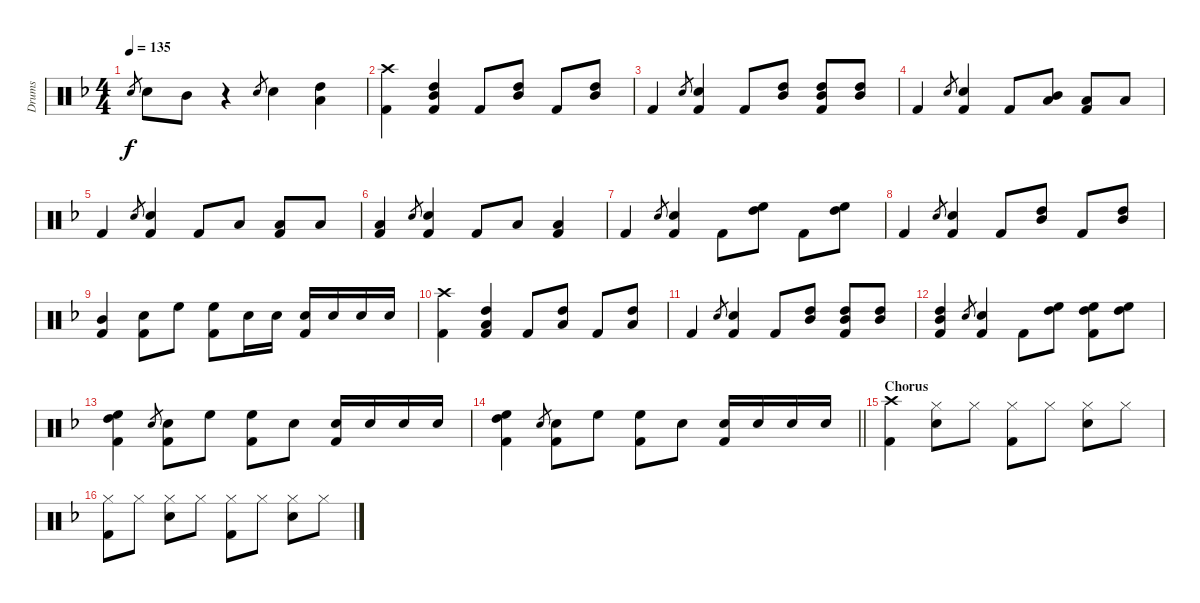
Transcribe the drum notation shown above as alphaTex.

\track ("Drums" "Drums") {instrument percussion}
\staff {score}
\articulation defaults
\ts (4 4)
\tempo 135
\clef neutral
\ks f "Snare (hit) 2".8{gr dy f} "Snare (hit) 2".8 "Mid Tom (hit)".8
r.4 "Snare (hit) 2".8{gr} "Snare (hit) 2".4 ("High Tom (hit)" "Low Tom (hit)").4 |
("Crash high (hit)" "Kick (hit) 2").4 ("High Tom (hit)" "Mid Tom (hit)" "Kick (hit) 2").4 "Kick (hit) 2".8 ("High Tom (hit)" "Mid Tom (hit)").8 "Kick (hit) 2".8 ("High Tom (hit)" "Mid Tom (hit)").8 |
"Kick (hit) 2".4 "Snare (hit) 2".8{gr} ("Snare (hit) 2" "Kick (hit) 2").4 "Kick (hit) 2".8 ("High Tom (hit)" "Mid Tom (hit)").8 ("High Tom (hit)" "Mid Tom (hit)" "Kick (hit) 2").8 ("High Tom (hit)" "Mid Tom (hit)").8 |
"Kick (hit) 2".4 "Snare (hit) 2".8{gr} ("Snare (hit) 2" "Kick (hit) 2").4 "Kick (hit) 2".8 ("Mid Tom (hit)" "Low Tom (hit)").8 ("Low Tom (hit)" "Kick (hit) 2").8 "Low Tom (hit)".8 |
"Kick (hit) 2".4 "Snare (hit) 2".8{gr} ("Snare (hit) 2" "Kick (hit) 2").4 "Kick (hit) 2".8 "Low Tom (hit)".8 ("Low Tom (hit)" "Kick (hit) 2").8 "Low Tom (hit)".8 |
("Low Tom (hit)" "Kick (hit) 2").4 "Snare (hit) 2".8{gr} ("Snare (hit) 2" "Kick (hit) 2").4 "Kick (hit) 2".8 "Low Tom (hit)".8 ("Low Tom (hit)" "Kick (hit) 2").4 |
"Kick (hit) 2".4 "Snare (hit) 2".8{gr} ("Snare (hit) 2" "Kick (hit) 2").4 "Kick (hit) 2".8 ("High Tom (hit)" "High Floor Tom (hit)").8 "Kick (hit) 2".8 ("High Tom (hit)" "High Floor Tom (hit)").8 |
"Kick (hit) 2".4 "Snare (hit) 2".8{gr} ("Snare (hit) 2" "Kick (hit) 2").4 "Kick (hit) 2".8 ("High Tom (hit)" "Mid Tom (hit)").8 "Kick (hit) 2".8 ("High Tom (hit)" "Mid Tom (hit)").8 |
("Mid Tom (hit)" "Kick (hit) 2").4 ("Snare (hit) 2" "Kick (hit) 2").8 "High Floor Tom (hit)".8 ("High Floor Tom (hit)" "Kick (hit) 2").8 "Snare (hit) 2".16 "Snare (hit) 2".16 ("Snare (hit) 2" "Kick (hit) 2").16 "Snare (hit) 2".16 "Snare (hit) 2".16 "Snare (hit) 2".16 |
("Crash high (hit)" "Kick (hit) 2").4 ("High Tom (hit)" "Low Tom (hit)" "Kick (hit) 2").4 "Kick (hit) 2".8 ("High Tom (hit)" "Low Tom (hit)").8 "Kick (hit) 2".8 ("High Tom (hit)" "Low Tom (hit)").8 |
"Kick (hit) 2".4 "Snare (hit) 2".8{gr} ("Snare (hit) 2" "Kick (hit) 2").4 "Kick (hit) 2".8 ("High Tom (hit)" "Mid Tom (hit)").8 ("High Tom (hit)" "Mid Tom (hit)" "Kick (hit) 2").8 ("High Tom (hit)" "Mid Tom (hit)").8 |
("High Tom (hit)" "Mid Tom (hit)" "Kick (hit) 2").4 "Snare (hit) 2".8{gr} ("Snare (hit) 2" "Kick (hit) 2").4 "Kick (hit) 2".8 ("High Floor Tom (hit)" "High Tom (hit)").8 ("High Floor Tom (hit)" "High Tom (hit)" "Kick (hit) 2").8 ("High Floor Tom (hit)" "High Tom (hit)").8 |
("High Floor Tom (hit)" "High Tom (hit)" "Kick (hit) 2").4 "Snare (hit) 2".8{gr} ("Snare (hit) 2" "Kick (hit) 2").8 "High Floor Tom (hit)".8 ("High Floor Tom (hit)" "Kick (hit) 2").8 "Snare (hit) 2".8 ("Snare (hit) 2" "Kick (hit) 2").16 "Snare (hit) 2".16 "Snare (hit) 2".16 "Snare (hit) 2".16 |
\barLineRight lightlight
("High Floor Tom (hit)" "High Tom (hit)" "Kick (hit) 2").4 "Snare (hit) 2".8{gr} ("Snare (hit) 2" "Kick (hit) 2").8 "High Floor Tom (hit)".8 ("High Floor Tom (hit)" "Kick (hit) 2").8 "Snare (hit) 2".8 ("Snare (hit) 2" "Kick (hit) 2").16 "Snare (hit) 2".16 "Snare (hit) 2".16 "Snare (hit) 2".16 |
\section ("" "Chorus")
("Crash high (hit)" "Kick (hit) 2").4 ("Hi-Hat (closed)" "Snare (hit) 2").8 "Hi-Hat (closed)".8 ("Hi-Hat (closed)" "Kick (hit) 2").8 "Hi-Hat (closed)".8 ("Hi-Hat (closed)" "Snare (hit) 2").8 "Hi-Hat (closed)".8 |
("Hi-Hat (closed)" "Kick (hit) 2").8 "Hi-Hat (closed)".8 ("Hi-Hat (closed)" "Snare (hit) 2").8 "Hi-Hat (closed)".8 ("Hi-Hat (closed)" "Kick (hit) 2").8 "Hi-Hat (closed)".8 ("Hi-Hat (closed)" "Snare (hit) 2").8 "Hi-Hat (closed)".8
